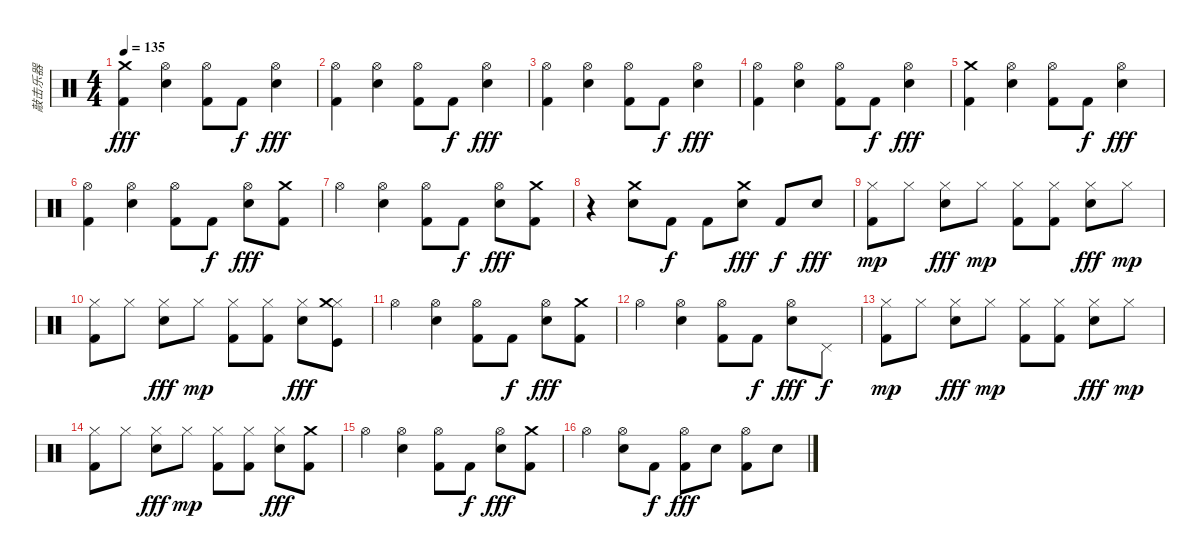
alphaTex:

\track ("敲击乐器" "敲击乐器") {instrument percussion}
\staff {score}
\articulation defaults
\ts (4 4)
\tempo 135
\clef neutral
\ks c
("Crash medium (hit)" "Kick (hit) 2").4{dy fff} ("Hi-Hat (open)" "Electric Snare (hit)").4 ("Hi-Hat (open)" "Kick (hit) 2").8 "Kick (hit) 2".8{dy f} ("Hi-Hat (open)" "Electric Snare (hit)").4{dy fff} |
("Hi-Hat (open)" "Kick (hit) 2").4 ("Hi-Hat (open)" "Electric Snare (hit)").4 ("Hi-Hat (open)" "Kick (hit) 2").8 "Kick (hit) 2".8{dy f} ("Hi-Hat (open)" "Electric Snare (hit)").4{dy fff} |
("Hi-Hat (open)" "Kick (hit) 2").4 ("Hi-Hat (open)" "Electric Snare (hit)").4 ("Hi-Hat (open)" "Kick (hit) 2").8 "Kick (hit) 2".8{dy f} ("Hi-Hat (open)" "Electric Snare (hit)").4{dy fff} |
("Hi-Hat (open)" "Kick (hit) 2").4 ("Hi-Hat (open)" "Electric Snare (hit)").4 ("Hi-Hat (open)" "Kick (hit) 2").8 "Kick (hit) 2".8{dy f} ("Hi-Hat (open)" "Electric Snare (hit)").4{dy fff} |
("Crash medium (hit)" "Kick (hit) 2").4 ("Hi-Hat (open)" "Electric Snare (hit)").4 ("Hi-Hat (open)" "Kick (hit) 2").8 "Kick (hit) 2".8{dy f} ("Hi-Hat (open)" "Electric Snare (hit)").4{dy fff} |
("Hi-Hat (open)" "Kick (hit) 2").4 ("Hi-Hat (open)" "Electric Snare (hit)").4 ("Hi-Hat (open)" "Kick (hit) 2").8 "Kick (hit) 2".8{dy f} ("Hi-Hat (open)" "Electric Snare (hit)").8{dy fff} ("Crash medium (hit)" "Kick (hit) 2").8 |
"Hi-Hat (open)".4 ("Hi-Hat (open)" "Electric Snare (hit)").4 ("Hi-Hat (open)" "Kick (hit) 2").8 "Kick (hit) 2".8{dy f} ("Electric Snare (hit)" "Hi-Hat (open)").8{dy fff} ("Crash medium (hit)" "Kick (hit) 2").8 |
r.4 ("Electric Snare (hit)" "Crash medium (hit)").8 "Kick (hit) 2".8{dy f} "Kick (hit) 2".8 ("Electric Snare (hit)" "Crash medium (hit)").8{dy fff} "Kick (hit) 2".8{dy f} "Electric Snare (hit)".8{dy fff} |
("Hi-Hat (closed)" "Kick (hit) 2").8{dy mp} "Hi-Hat (closed)".8 ("Hi-Hat (closed)" "Electric Snare (hit)").8{dy fff} "Hi-Hat (closed)".8{dy mp} ("Hi-Hat (closed)" "Kick (hit) 2").8 ("Hi-Hat (closed)" "Kick (hit) 2").8 ("Hi-Hat (closed)" "Electric Snare (hit)").8{dy fff} "Hi-Hat (closed)".8{dy mp} |
("Hi-Hat (closed)" "Kick (hit) 2").8 "Hi-Hat (closed)".8 ("Hi-Hat (closed)" "Electric Snare (hit)").8{dy fff} "Hi-Hat (closed)".8{dy mp} ("Hi-Hat (closed)" "Kick (hit) 2").8 ("Hi-Hat (closed)" "Kick (hit) 2").8 ("Hi-Hat (closed)" "Electric Snare (hit)").8{dy fff} ("Hi-Hat (closed)" "Crash medium (hit)" "Kick (hit)").8 |
"Hi-Hat (open)".4 ("Hi-Hat (open)" "Electric Snare (hit)").4 ("Hi-Hat (open)" "Kick (hit) 2").8 "Kick (hit) 2".8{dy f} ("Hi-Hat (open)" "Electric Snare (hit)").8{dy fff} ("Kick (hit) 2" "Crash medium (hit)").8 |
"Hi-Hat (open)".4 ("Hi-Hat (open)" "Electric Snare (hit)").4 ("Hi-Hat (open)" "Kick (hit) 2").8 "Kick (hit) 2".8{dy f} ("Hi-Hat (open)" "Electric Snare (hit)").8{dy fff} "Pedal Hi-Hat (hit)".8{dy f} |
("Hi-Hat (closed)" "Kick (hit) 2").8{dy mp} "Hi-Hat (closed)".8 ("Hi-Hat (closed)" "Electric Snare (hit)").8{dy fff} "Hi-Hat (closed)".8{dy mp} ("Hi-Hat (closed)" "Kick (hit) 2").8 ("Hi-Hat (closed)" "Kick (hit) 2").8 ("Hi-Hat (closed)" "Electric Snare (hit)").8{dy fff} "Hi-Hat (closed)".8{dy mp} |
("Hi-Hat (closed)" "Kick (hit) 2").8 "Hi-Hat (closed)".8 ("Hi-Hat (closed)" "Electric Snare (hit)").8{dy fff} "Hi-Hat (closed)".8{dy mp} ("Hi-Hat (closed)" "Kick (hit) 2").8 ("Hi-Hat (closed)" "Kick (hit) 2").8 ("Hi-Hat (closed)" "Electric Snare (hit)").8{dy fff} ("Kick (hit) 2" "Crash medium (hit)").8 |
"Hi-Hat (open)".4 ("Hi-Hat (open)" "Electric Snare (hit)").4 ("Hi-Hat (open)" "Kick (hit) 2").8 "Kick (hit) 2".8{dy f} ("Hi-Hat (open)" "Electric Snare (hit)").8{dy fff} ("Kick (hit) 2" "Crash medium (hit)").8 |
"Hi-Hat (open)".4 ("Electric Snare (hit)" "Hi-Hat (open)").8 "Kick (hit) 2".8{dy f} ("Hi-Hat (open)" "Kick (hit) 2").8{dy fff} "Electric Snare (hit)".8 ("Hi-Hat (open)" "Kick (hit) 2").8 "Electric Snare (hit)".8
